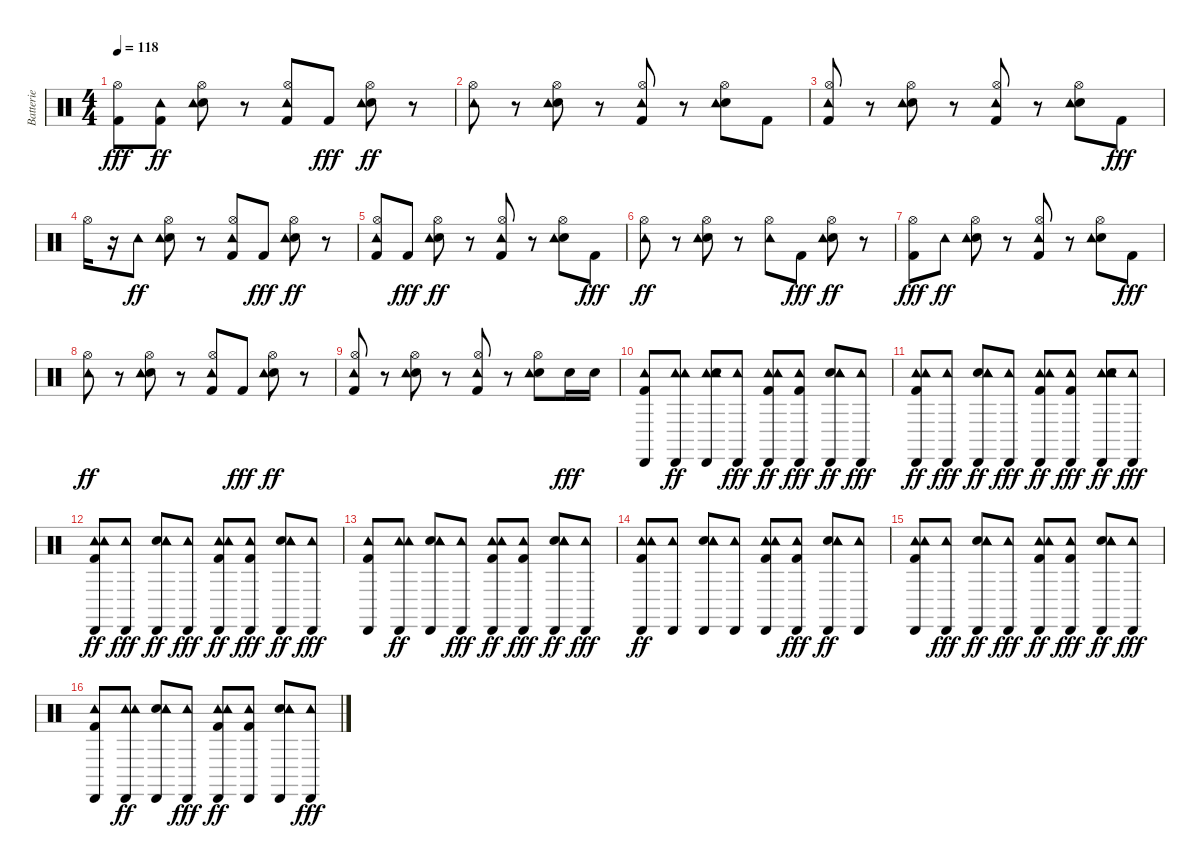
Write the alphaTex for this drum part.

\track ("Batterie" "Batterie") {instrument percussion}
\staff {score}
\articulation defaults
\ts (4 4)
\tempo 118
\clef neutral
\ks c
("Kick (hit) 2" "Hi-Hat (open)").8{dy fff} ("Kick (hit) 2" "Tambourine (hit)").8{dy ff} ("Snare (hit) 2" "Hi-Hat (open)" "Tambourine (hit)").8 r.8 ("Kick (hit) 2" "Hi-Hat (open)" "Tambourine (hit)").8 "Kick (hit) 2".8{dy fff} ("Snare (hit) 2" "Hi-Hat (open)" "Tambourine (hit)").8{dy ff} r.8 |
("Hi-Hat (open)" "Tambourine (hit)").8 r.8 ("Snare (hit) 2" "Hi-Hat (open)" "Tambourine (hit)").8 r.8 ("Kick (hit) 2" "Hi-Hat (open)" "Tambourine (hit)").8 r.8 ("Snare (hit) 2" "Hi-Hat (open)" "Tambourine (hit)").8 "Kick (hit) 2".8 |
("Kick (hit) 2" "Hi-Hat (open)" "Tambourine (hit)").8 r.8 ("Snare (hit) 2" "Hi-Hat (open)" "Tambourine (hit)").8 r.8 ("Kick (hit) 2" "Hi-Hat (open)" "Tambourine (hit)").8 r.8 ("Snare (hit) 2" "Hi-Hat (open)" "Tambourine (hit)").8 "Kick (hit) 2".8{dy fff} |
"Hi-Hat (open)".16 r.16 "Tambourine (hit)".8{dy ff} ("Snare (hit) 2" "Hi-Hat (open)" "Tambourine (hit)").8 r.8 ("Kick (hit) 2" "Hi-Hat (open)" "Tambourine (hit)").8 "Kick (hit) 2".8{dy fff} ("Snare (hit) 2" "Hi-Hat (open)" "Tambourine (hit)").8{dy ff} r.8 |
("Kick (hit) 2" "Hi-Hat (open)" "Tambourine (hit)").8 "Kick (hit) 2".8{dy fff} ("Hi-Hat (open)" "Snare (hit) 2" "Tambourine (hit)").8{dy ff} r.8 ("Kick (hit) 2" "Hi-Hat (open)" "Tambourine (hit)").8 r.8 ("Snare (hit) 2" "Hi-Hat (open)" "Tambourine (hit)").8 "Kick (hit) 2".8{dy fff} |
("Hi-Hat (open)" "Tambourine (hit)").8{dy ff} r.8 ("Hi-Hat (open)" "Snare (hit) 2" "Tambourine (hit)").8 r.8 ("Hi-Hat (open)" "Tambourine (hit)").8 "Kick (hit) 2".8{dy fff} ("Hi-Hat (open)" "Snare (hit) 2" "Tambourine (hit)").8{dy ff} r.8 |
("Kick (hit) 2" "Hi-Hat (open)").8{dy fff} "Tambourine (hit)".8{dy ff} ("Snare (hit) 2" "Hi-Hat (open)" "Tambourine (hit)").8 r.8 ("Hi-Hat (open)" "Kick (hit) 2" "Tambourine (hit)").8 r.8 ("Snare (hit) 2" "Hi-Hat (open)" "Tambourine (hit)").8 "Kick (hit) 2".8{dy fff} |
("Hi-Hat (open)" "Tambourine (hit)").8{dy ff} r.8 ("Hi-Hat (open)" "Snare (hit) 2" "Tambourine (hit)").8 r.8 ("Hi-Hat (open)" "Kick (hit) 2" "Tambourine (hit)").8 "Kick (hit) 2".8{dy fff} ("Snare (hit) 2" "Hi-Hat (open)" "Tambourine (hit)").8{dy ff} r.8 |
("Kick (hit) 2" "Hi-Hat (open)" "Tambourine (hit)").8 r.8 ("Snare (hit) 2" "Hi-Hat (open)" "Tambourine (hit)").8 r.8 ("Kick (hit) 2" "Hi-Hat (open)" "Tambourine (hit)").8 r.8 ("Hi-Hat (open)" "Snare (hit) 2" "Tambourine (hit)").8 "Snare (hit) 2".16{dy fff} "Snare (hit) 2".16 |
("Cabasa (hit)" "Tambourine (hit)" "Kick (hit) 2").8 ("Cabasa (hit)" "Tambourine (hit)" "Tambourine (hit)").8{dy ff} ("Tambourine (hit)" "Cabasa (hit)" "Snare (hit) 2" "Tambourine (hit)").8 ("Cabasa (hit)" "Tambourine (hit)").8{dy fff} ("Kick (hit) 2" "Tambourine (hit)" "Cabasa (hit)" "Tambourine (hit)").8{dy ff} ("Kick (hit) 2" "Tambourine (hit)" "Cabasa (hit)").8{dy fff} ("Cabasa (hit)" "Snare (hit) 2" "Tambourine (hit)" "Tambourine (hit)").8{dy ff} ("Cabasa (hit)" "Tambourine (hit)").8{dy fff} |
("Cabasa (hit)" "Tambourine (hit)" "Kick (hit) 2" "Tambourine (hit)").8{dy ff} ("Cabasa (hit)" "Tambourine (hit)").8{dy fff} ("Cabasa (hit)" "Snare (hit) 2" "Tambourine (hit)" "Tambourine (hit)").8{dy ff} ("Cabasa (hit)" "Tambourine (hit)").8{dy fff} ("Cabasa (hit)" "Tambourine (hit)" "Kick (hit) 2" "Tambourine (hit)").8{dy ff} ("Cabasa (hit)" "Tambourine (hit)" "Kick (hit) 2").8{dy fff} ("Tambourine (hit)" "Cabasa (hit)" "Snare (hit) 2" "Tambourine (hit)").8{dy ff} ("Cabasa (hit)" "Tambourine (hit)").8{dy fff} |
("Cabasa (hit)" "Tambourine (hit)" "Kick (hit) 2" "Tambourine (hit)").8{dy ff} ("Cabasa (hit)" "Tambourine (hit)").8{dy fff} ("Cabasa (hit)" "Snare (hit) 2" "Tambourine (hit)" "Tambourine (hit)").8{dy ff} ("Cabasa (hit)" "Tambourine (hit)").8{dy fff} ("Tambourine (hit)" "Kick (hit) 2" "Cabasa (hit)" "Tambourine (hit)").8{dy ff} ("Kick (hit) 2" "Cabasa (hit)" "Tambourine (hit)").8{dy fff} ("Snare (hit) 2" "Tambourine (hit)" "Cabasa (hit)" "Tambourine (hit)").8{dy ff} ("Cabasa (hit)" "Tambourine (hit)").8{dy fff} |
("Kick (hit) 2" "Cabasa (hit)" "Tambourine (hit)").8 ("Tambourine (hit)" "Cabasa (hit)" "Tambourine (hit)").8{dy ff} ("Cabasa (hit)" "Snare (hit) 2" "Tambourine (hit)" "Tambourine (hit)").8 ("Cabasa (hit)" "Tambourine (hit)").8{dy fff} ("Cabasa (hit)" "Tambourine (hit)" "Kick (hit) 2" "Tambourine (hit)").8{dy ff} ("Cabasa (hit)" "Kick (hit) 2" "Tambourine (hit)").8{dy fff} ("Snare (hit) 2" "Tambourine (hit)" "Cabasa (hit)" "Tambourine (hit)").8{dy ff} ("Cabasa (hit)" "Tambourine (hit)").8{dy fff} |
("Tambourine (hit)" "Kick (hit) 2" "Cabasa (hit)" "Tambourine (hit)").8{dy ff} ("Tambourine (hit)" "Cabasa (hit)").8 ("Snare (hit) 2" "Tambourine (hit)" "Cabasa (hit)" "Tambourine (hit)").8 ("Tambourine (hit)" "Cabasa (hit)").8 ("Tambourine (hit)" "Kick (hit) 2" "Cabasa (hit)" "Tambourine (hit)").8 ("Cabasa (hit)" "Kick (hit) 2" "Tambourine (hit)").8{dy fff} ("Cabasa (hit)" "Snare (hit) 2" "Tambourine (hit)" "Tambourine (hit)").8{dy ff} ("Tambourine (hit)" "Cabasa (hit)").8 |
("Cabasa (hit)" "Kick (hit) 2" "Tambourine (hit)" "Tambourine (hit)").8 ("Cabasa (hit)" "Tambourine (hit)").8{dy fff} ("Cabasa (hit)" "Snare (hit) 2" "Tambourine (hit)" "Tambourine (hit)").8{dy ff} ("Tambourine (hit)" "Cabasa (hit)").8{dy fff} ("Tambourine (hit)" "Cabasa (hit)" "Kick (hit) 2" "Tambourine (hit)").8{dy ff} ("Tambourine (hit)" "Cabasa (hit)" "Kick (hit) 2").8{dy fff} ("Snare (hit) 2" "Cabasa (hit)" "Tambourine (hit)" "Tambourine (hit)").8{dy ff} ("Cabasa (hit)" "Tambourine (hit)").8{dy fff} |
("Kick (hit) 2" "Cabasa (hit)" "Tambourine (hit)").8 ("Cabasa (hit)" "Tambourine (hit)" "Tambourine (hit)").8{dy ff} ("Cabasa (hit)" "Snare (hit) 2" "Tambourine (hit)" "Tambourine (hit)").8 ("Cabasa (hit)" "Tambourine (hit)").8{dy fff} ("Kick (hit) 2" "Tambourine (hit)" "Cabasa (hit)" "Tambourine (hit)").8{dy ff} ("Kick (hit) 2" "Tambourine (hit)" "Cabasa (hit)").8 ("Snare (hit) 2" "Tambourine (hit)" "Cabasa (hit)" "Tambourine (hit)").8 ("Cabasa (hit)" "Tambourine (hit)").8{dy fff}
